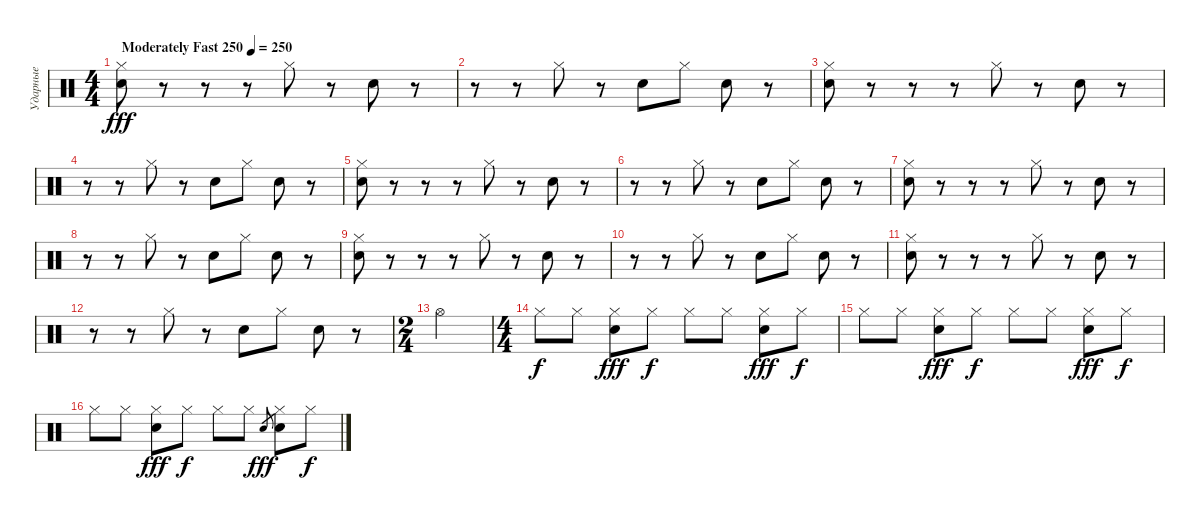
\track ("Ударные" "Ударные") {instrument percussion}
\staff {score}
\articulation defaults
\ts (4 4)
\tempo (250 "Moderately Fast 250")
\clef neutral
\ks c
("Hi-Hat (closed)" "Snare (hit) 2").8{dy fff} r.8 r.8 r.8 "Hi-Hat (closed)".8 r.8 "Snare (hit) 2".8 r.8 |
r.8 r.8 "Hi-Hat (closed)".8 r.8 "Snare (hit) 2".8 "Hi-Hat (closed)".8 "Snare (hit) 2".8 r.8 |
("Hi-Hat (closed)" "Snare (hit) 2").8 r.8 r.8 r.8 "Hi-Hat (closed)".8 r.8 "Snare (hit) 2".8 r.8 |
r.8 r.8 "Hi-Hat (closed)".8 r.8 "Snare (hit) 2".8 "Hi-Hat (closed)".8 "Snare (hit) 2".8 r.8 |
("Hi-Hat (closed)" "Snare (hit) 2").8 r.8 r.8 r.8 "Hi-Hat (closed)".8 r.8 "Snare (hit) 2".8 r.8 |
r.8 r.8 "Hi-Hat (closed)".8 r.8 "Snare (hit) 2".8 "Hi-Hat (closed)".8 "Snare (hit) 2".8 r.8 |
("Hi-Hat (closed)" "Snare (hit) 2").8 r.8 r.8 r.8 "Hi-Hat (closed)".8 r.8 "Snare (hit) 2".8 r.8 |
r.8 r.8 "Hi-Hat (closed)".8 r.8 "Snare (hit) 2".8 "Hi-Hat (closed)".8 "Snare (hit) 2".8 r.8 |
("Hi-Hat (closed)" "Snare (hit) 2").8 r.8 r.8 r.8 "Hi-Hat (closed)".8 r.8 "Snare (hit) 2".8 r.8 |
r.8 r.8 "Hi-Hat (closed)".8 r.8 "Snare (hit) 2".8 "Hi-Hat (closed)".8 "Snare (hit) 2".8 r.8 |
("Hi-Hat (closed)" "Snare (hit) 2").8 r.8 r.8 r.8 "Hi-Hat (closed)".8 r.8 "Snare (hit) 2".8 r.8 |
r.8 r.8 "Hi-Hat (closed)".8 r.8 "Snare (hit) 2".8 "Hi-Hat (closed)".8 "Snare (hit) 2".8 r.8 |
\ts (2 4)
"Hi-Hat (open)".2 |
\ts (4 4)
"Hi-Hat (closed)".8{dy f} "Hi-Hat (closed)".8 ("Hi-Hat (closed)" "Snare (hit) 2").8{dy fff} "Hi-Hat (closed)".8{dy f} "Hi-Hat (closed)".8 "Hi-Hat (closed)".8 ("Hi-Hat (closed)" "Snare (hit) 2").8{dy fff} "Hi-Hat (closed)".8{dy f} |
"Hi-Hat (closed)".8 "Hi-Hat (closed)".8 ("Hi-Hat (closed)" "Snare (hit) 2").8{dy fff} "Hi-Hat (closed)".8{dy f} "Hi-Hat (closed)".8 "Hi-Hat (closed)".8 ("Hi-Hat (closed)" "Snare (hit) 2").8{dy fff} "Hi-Hat (closed)".8{dy f} |
"Hi-Hat (closed)".8 "Hi-Hat (closed)".8 ("Hi-Hat (closed)" "Snare (hit) 2").8{dy fff} "Hi-Hat (closed)".8{dy f} "Hi-Hat (closed)".8 "Hi-Hat (closed)".8 "Snare (hit) 2".8{gr dy fff} ("Hi-Hat (closed)" "Snare (hit) 2").8 "Hi-Hat (closed)".8{dy f}
